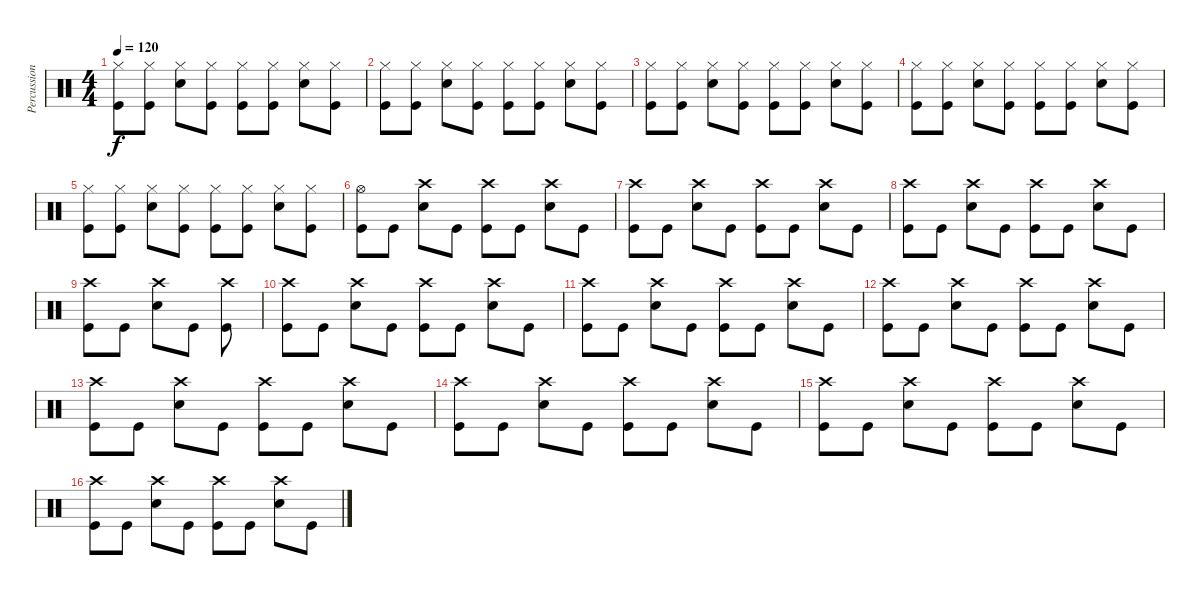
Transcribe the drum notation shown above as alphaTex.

\track ("Percussion" "Percussion") {instrument percussion}
\staff {score}
\articulation defaults
\ts (4 4)
\tempo 120
\clef neutral
\ks c
("Hi-Hat (closed)" "Kick (hit)").8{dy f} ("Hi-Hat (closed)" "Kick (hit)").8 ("Hi-Hat (closed)" "Snare (hit) 2").8 ("Hi-Hat (closed)" "Kick (hit)").8 ("Hi-Hat (closed)" "Kick (hit)").8 ("Hi-Hat (closed)" "Kick (hit)").8 ("Hi-Hat (closed)" "Snare (hit) 2").8 ("Hi-Hat (closed)" "Kick (hit)").8 |
("Hi-Hat (closed)" "Kick (hit)").8 ("Hi-Hat (closed)" "Kick (hit)").8 ("Hi-Hat (closed)" "Snare (hit) 2").8 ("Hi-Hat (closed)" "Kick (hit)").8 ("Hi-Hat (closed)" "Kick (hit)").8 ("Hi-Hat (closed)" "Kick (hit)").8 ("Hi-Hat (closed)" "Snare (hit) 2").8 ("Hi-Hat (closed)" "Kick (hit)").8 |
("Hi-Hat (closed)" "Kick (hit)").8 ("Hi-Hat (closed)" "Kick (hit)").8 ("Hi-Hat (closed)" "Snare (hit) 2").8 ("Hi-Hat (closed)" "Kick (hit)").8 ("Hi-Hat (closed)" "Kick (hit)").8 ("Hi-Hat (closed)" "Kick (hit)").8 ("Hi-Hat (closed)" "Snare (hit) 2").8 ("Hi-Hat (closed)" "Kick (hit)").8 |
("Hi-Hat (closed)" "Kick (hit)").8 ("Hi-Hat (closed)" "Kick (hit)").8 ("Hi-Hat (closed)" "Snare (hit) 2").8 ("Hi-Hat (closed)" "Kick (hit)").8 ("Hi-Hat (closed)" "Kick (hit)").8 ("Hi-Hat (closed)" "Kick (hit)").8 ("Hi-Hat (closed)" "Snare (hit) 2").8 ("Hi-Hat (closed)" "Kick (hit)").8 |
("Hi-Hat (closed)" "Kick (hit)").8 ("Hi-Hat (closed)" "Kick (hit)").8 ("Hi-Hat (closed)" "Snare (hit) 2").8 ("Hi-Hat (closed)" "Kick (hit)").8 ("Hi-Hat (closed)" "Kick (hit)").8 ("Hi-Hat (closed)" "Kick (hit)").8 ("Hi-Hat (closed)" "Snare (hit) 2").8 ("Hi-Hat (closed)" "Kick (hit)").8 |
("Hi-Hat (open)" "Kick (hit)").8 "Kick (hit)".8 ("Crash high (hit)" "Snare (hit) 2").8 "Kick (hit)".8 ("Crash high (hit)" "Kick (hit)").8 "Kick (hit)".8 ("Crash high (hit)" "Snare (hit) 2").8 "Kick (hit)".8 |
("Crash high (hit)" "Kick (hit)").8 "Kick (hit)".8 ("Crash high (hit)" "Snare (hit) 2").8 "Kick (hit)".8 ("Crash high (hit)" "Kick (hit)").8 "Kick (hit)".8 ("Crash high (hit)" "Snare (hit) 2").8 "Kick (hit)".8 |
("Crash high (hit)" "Kick (hit)").8 "Kick (hit)".8 ("Crash high (hit)" "Snare (hit) 2").8 "Kick (hit)".8 ("Crash high (hit)" "Kick (hit)").8 "Kick (hit)".8 ("Crash high (hit)" "Snare (hit) 2").8 "Kick (hit)".8 |
("Crash high (hit)" "Kick (hit)").8 "Kick (hit)".8 ("Crash high (hit)" "Snare (hit) 2").8 "Kick (hit)".8 ("Crash high (hit)" "Kick (hit)").8 |
("Crash high (hit)" "Kick (hit)").8 "Kick (hit)".8 ("Crash high (hit)" "Snare (hit) 2").8 "Kick (hit)".8 ("Crash high (hit)" "Kick (hit)").8 "Kick (hit)".8 ("Crash high (hit)" "Snare (hit) 2").8 "Kick (hit)".8 |
("Crash high (hit)" "Kick (hit)").8 "Kick (hit)".8 ("Crash high (hit)" "Snare (hit) 2").8 "Kick (hit)".8 ("Crash high (hit)" "Kick (hit)").8 "Kick (hit)".8 ("Crash high (hit)" "Snare (hit) 2").8 "Kick (hit)".8 |
("Crash high (hit)" "Kick (hit)").8 "Kick (hit)".8 ("Crash high (hit)" "Snare (hit) 2").8 "Kick (hit)".8 ("Crash high (hit)" "Kick (hit)").8 "Kick (hit)".8 ("Crash high (hit)" "Snare (hit) 2").8 "Kick (hit)".8 |
("Crash high (hit)" "Kick (hit)").8 "Kick (hit)".8 ("Crash high (hit)" "Snare (hit) 2").8 "Kick (hit)".8 ("Crash high (hit)" "Kick (hit)").8 "Kick (hit)".8 ("Crash high (hit)" "Snare (hit) 2").8 "Kick (hit)".8 |
("Crash high (hit)" "Kick (hit)").8 "Kick (hit)".8 ("Crash high (hit)" "Snare (hit) 2").8 "Kick (hit)".8 ("Crash high (hit)" "Kick (hit)").8 "Kick (hit)".8 ("Crash high (hit)" "Snare (hit) 2").8 "Kick (hit)".8 |
("Crash high (hit)" "Kick (hit)").8 "Kick (hit)".8 ("Crash high (hit)" "Snare (hit) 2").8 "Kick (hit)".8 ("Crash high (hit)" "Kick (hit)").8 "Kick (hit)".8 ("Crash high (hit)" "Snare (hit) 2").8 "Kick (hit)".8 |
("Crash high (hit)" "Kick (hit)").8 "Kick (hit)".8 ("Crash high (hit)" "Snare (hit) 2").8 "Kick (hit)".8 ("Crash high (hit)" "Kick (hit)").8 "Kick (hit)".8 ("Crash high (hit)" "Snare (hit) 2").8 "Kick (hit)".8
